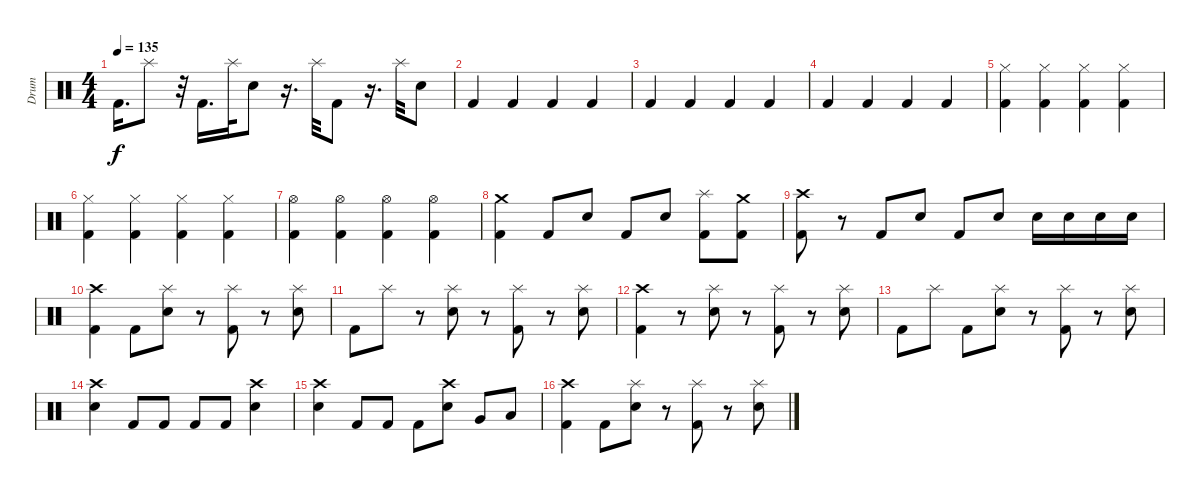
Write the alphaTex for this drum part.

\track ("Drum" "Drum") {instrument percussion}
\staff {score}
\articulation defaults
\ts (4 4)
\tempo 135
\clef neutral
\ks c "Kick (hit) 2".16{d dy f} "Splash (hit)".8
r.32 "Kick (hit) 2".16{d} "Splash (hit)".32 "Electric Snare (hit)".8 r.16{d} "Splash (hit)".32 "Kick (hit) 2".8 r.16{d} "Splash (hit)".32 "Electric Snare (hit)".8 |
"Kick (hit) 2".4 "Kick (hit) 2".4 "Kick (hit) 2".4 "Kick (hit) 2".4 |
"Kick (hit) 2".4 "Kick (hit) 2".4 "Kick (hit) 2".4 "Kick (hit) 2".4 |
"Kick (hit) 2".4 "Kick (hit) 2".4 "Kick (hit) 2".4 "Kick (hit) 2".4 |
("Kick (hit) 2" "Hi-Hat (closed)").4 ("Kick (hit) 2" "Hi-Hat (closed)").4 ("Kick (hit) 2" "Hi-Hat (closed)").4 ("Kick (hit) 2" "Hi-Hat (closed)").4 |
("Kick (hit) 2" "Hi-Hat (closed)").4 ("Kick (hit) 2" "Hi-Hat (closed)").4 ("Kick (hit) 2" "Hi-Hat (closed)").4 ("Kick (hit) 2" "Hi-Hat (closed)").4 |
("Kick (hit) 2" "Hi-Hat (open)").4 ("Kick (hit) 2" "Hi-Hat (open)").4 ("Kick (hit) 2" "Hi-Hat (open)").4 ("Kick (hit) 2" "Hi-Hat (open)").4 |
("Crash medium (hit)" "Kick (hit) 2").4 "Kick (hit) 2".8 "Electric Snare (hit)".8 "Kick (hit) 2".8 "Electric Snare (hit)".8 ("Splash (hit)" "Kick (hit) 2").8 ("Crash medium (hit)" "Kick (hit) 2").8 |
("Crash high (hit)" "Kick (hit) 2").8 r.8 "Kick (hit) 2".8 "Electric Snare (hit)".8 "Kick (hit) 2".8 "Electric Snare (hit)".8 "Electric Snare (hit)".16 "Electric Snare (hit)".16 "Electric Snare (hit)".16 "Electric Snare (hit)".16 |
("Crash high (hit)" "Kick (hit) 2").4 "Kick (hit) 2".8 ("Splash (hit)" "Electric Snare (hit)").8 r.8 ("Splash (hit)" "Kick (hit) 2").8 r.8 ("Splash (hit)" "Electric Snare (hit)").8 |
"Kick (hit) 2".8 "Splash (hit)".8 r.8 ("Splash (hit)" "Electric Snare (hit)").8 r.8 ("Splash (hit)" "Kick (hit) 2").8 r.8 ("Splash (hit)" "Electric Snare (hit)").8 |
("Crash high (hit)" "Kick (hit) 2").4 r.8 ("Splash (hit)" "Electric Snare (hit)").8 r.8 ("Splash (hit)" "Kick (hit) 2").8 r.8 ("Splash (hit)" "Electric Snare (hit)").8 |
"Kick (hit) 2".8 "Splash (hit)".8 "Kick (hit) 2".8 ("Splash (hit)" "Electric Snare (hit)").8 r.8 ("Splash (hit)" "Kick (hit) 2").8 r.8 ("Splash (hit)" "Electric Snare (hit)").8 |
("Crash high (hit)" "Electric Snare (hit)").4 "Kick (hit) 2".8 "Kick (hit) 2".8 "Kick (hit) 2".8 "Kick (hit) 2".8 ("Crash high (hit)" "Electric Snare (hit)").4 |
("Crash high (hit)" "Electric Snare (hit)").4 "Kick (hit) 2".8 "Kick (hit) 2".8 "Kick (hit) 2".8 ("Crash high (hit)" "Electric Snare (hit)").8 "Very Low Tom (hit)".8 "Low Floor Tom (hit)".8 |
("Crash high (hit)" "Kick (hit) 2").4 "Kick (hit) 2".8 ("Splash (hit)" "Electric Snare (hit)").8 r.8 ("Splash (hit)" "Kick (hit) 2").8 r.8 ("Splash (hit)" "Electric Snare (hit)").8
